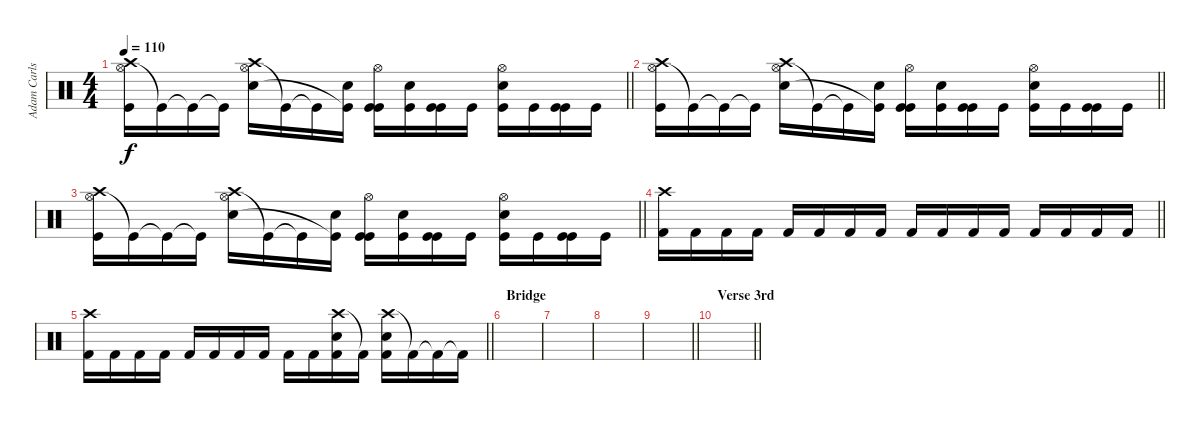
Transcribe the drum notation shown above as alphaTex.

\track ("Adam Carlson(Natural Drums)" "Adam Carls") {instrument percussion}
\staff {score}
\articulation defaults
\ts (4 4)
\tempo 110
\clef neutral
\barLineRight lightlight
\ks c
("Hi-Hat (open)" "Kick (hit)" "Crash high (hit)").16{dy f} "Kick (hit)"{t}.16 "Kick (hit)"{t}.16 "Kick (hit)"{t}.16 ("Hi-Hat (open)" "Electric Snare (hit)" "Crash high (hit)").16 "Kick (hit)"{t}.16 "Kick (hit)"{t}.16 ("Electric Snare (hit)" "Kick (hit)"{t}).16 ("Hi-Hat (open)" "Kick (hit)" "Kick (hit)").16 ("Electric Snare (hit)" "Kick (hit)").16 ("Kick (hit)" "Kick (hit)").16 "Kick (hit)".16 ("Hi-Hat (open)" "Electric Snare (hit)" "Kick (hit)").16 "Kick (hit)".16 ("Kick (hit)" "Kick (hit)").16 "Kick (hit)".16 |
\barLineRight lightlight
("Hi-Hat (open)" "Kick (hit)" "Crash high (hit)").16 "Kick (hit)"{t}.16 "Kick (hit)"{t}.16 "Kick (hit)"{t}.16 ("Hi-Hat (open)" "Electric Snare (hit)" "Crash high (hit)").16 "Kick (hit)"{t}.16 "Kick (hit)"{t}.16 ("Electric Snare (hit)" "Kick (hit)"{t}).16 ("Hi-Hat (open)" "Kick (hit)" "Kick (hit)").16 ("Electric Snare (hit)" "Kick (hit)").16 ("Kick (hit)" "Kick (hit)").16 "Kick (hit)".16 ("Hi-Hat (open)" "Electric Snare (hit)" "Kick (hit)").16 "Kick (hit)".16 ("Kick (hit)" "Kick (hit)").16 "Kick (hit)".16 |
\barLineRight lightlight
("Hi-Hat (open)" "Kick (hit)" "Crash high (hit)").16 "Kick (hit)"{t}.16 "Kick (hit)"{t}.16 "Kick (hit)"{t}.16 ("Hi-Hat (open)" "Electric Snare (hit)" "Crash high (hit)").16 "Kick (hit)"{t}.16 "Kick (hit)"{t}.16 ("Electric Snare (hit)" "Kick (hit)"{t}).16 ("Hi-Hat (open)" "Kick (hit)" "Kick (hit)").16 ("Electric Snare (hit)" "Kick (hit)").16 ("Kick (hit)" "Kick (hit)").16 "Kick (hit)".16 ("Hi-Hat (open)" "Electric Snare (hit)" "Kick (hit)").16 "Kick (hit)".16 ("Kick (hit)" "Kick (hit)").16 "Kick (hit)".16 |
\barLineRight lightlight
("Crash high (hit)" "Kick (hit) 2").16 "Kick (hit) 2".16 "Kick (hit) 2".16 "Kick (hit) 2".16 "Kick (hit) 2".16 "Kick (hit) 2".16 "Kick (hit) 2".16 "Kick (hit) 2".16 "Kick (hit) 2".16 "Kick (hit) 2".16 "Kick (hit) 2".16 "Kick (hit) 2".16 "Kick (hit) 2".16 "Kick (hit) 2".16 "Kick (hit) 2".16 "Kick (hit) 2".16 |
\barLineRight lightlight
("Crash high (hit)" "Kick (hit) 2").16 "Kick (hit) 2".16 "Kick (hit) 2".16 "Kick (hit) 2".16 "Kick (hit) 2".16 "Kick (hit) 2".16 "Kick (hit) 2".16 "Kick (hit) 2".16 "Kick (hit) 2".16 "Kick (hit) 2".16 ("Crash high (hit)" "Electric Snare (hit)" "Kick (hit) 2").16 "Kick (hit) 2"{t}.16 ("Crash high (hit)" "Electric Snare (hit)" "Kick (hit) 2").16 "Kick (hit) 2"{t}.16 "Kick (hit) 2"{t}.16 "Kick (hit) 2"{t}.16 |
\section ("" "Bridge")
|
|
|
\barLineRight lightlight
|
\section ("" "Verse 3rd")
\barLineRight lightlight
